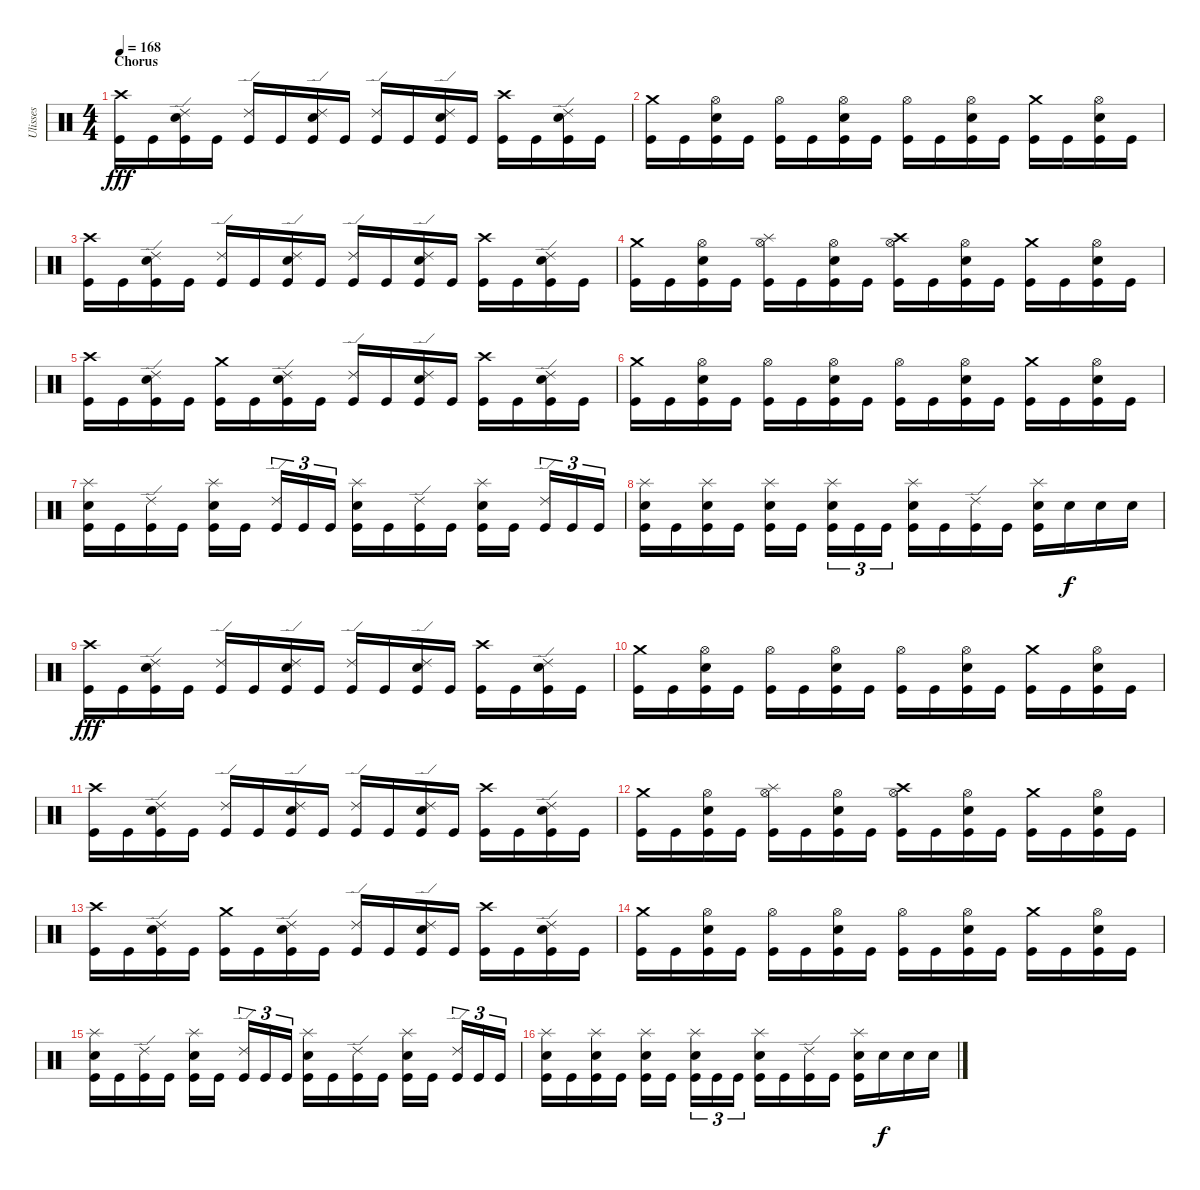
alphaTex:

\track ("Ulisses" "Ulisses") {instrument percussion}
\staff {score}
\articulation defaults
\ts (4 4)
\section ("" "Chorus")
\tempo 168
\clef neutral
\ks c
("Crash high (hit)" "Kick (hit)").16{dy fff} "Kick (hit)".16 ("Ride (edge) 2" "Snare (hit) 2" "Kick (hit)").16 "Kick (hit)".16 ("Ride (edge) 2" "Kick (hit)").16 "Kick (hit)".16 ("Ride (edge) 2" "Snare (hit) 2" "Kick (hit)").16 "Kick (hit)".16 ("Ride (edge) 2" "Kick (hit)").16 "Kick (hit)".16 ("Ride (edge) 2" "Snare (hit) 2" "Kick (hit)").16 "Kick (hit)".16 ("Crash high (hit)" "Kick (hit)").16 "Kick (hit)".16 ("Ride (edge) 2" "Snare (hit) 2" "Kick (hit)").16 "Kick (hit)".16 |
("Crash medium (hit)" "Kick (hit)").16 "Kick (hit)".16 ("Hi-Hat (open)" "Snare (hit) 2" "Kick (hit)").16 "Kick (hit)".16 ("Hi-Hat (open)" "Kick (hit)").16 "Kick (hit)".16 ("Hi-Hat (open)" "Snare (hit) 2" "Kick (hit)").16 "Kick (hit)".16 ("Hi-Hat (open)" "Kick (hit)").16 "Kick (hit)".16 ("Hi-Hat (open)" "Snare (hit) 2" "Kick (hit)").16 "Kick (hit)".16 ("Crash medium (hit)" "Kick (hit)").16 "Kick (hit)".16 ("Hi-Hat (open)" "Snare (hit) 2" "Kick (hit)").16 "Kick (hit)".16 |
("Crash high (hit)" "Kick (hit)").16 "Kick (hit)".16 ("Ride (edge) 2" "Snare (hit) 2" "Kick (hit)").16 "Kick (hit)".16 ("Ride (edge) 2" "Kick (hit)").16 "Kick (hit)".16 ("Ride (edge) 2" "Snare (hit) 2" "Kick (hit)").16 "Kick (hit)".16 ("Ride (edge) 2" "Kick (hit)").16 "Kick (hit)".16 ("Ride (edge) 2" "Snare (hit) 2" "Kick (hit)").16 "Kick (hit)".16 ("Crash high (hit)" "Kick (hit)").16 "Kick (hit)".16 ("Ride (edge) 2" "Snare (hit) 2" "Kick (hit)").16 "Kick (hit)".16 |
("Crash medium (hit)" "Kick (hit)").16 "Kick (hit)".16 ("Hi-Hat (open)" "Snare (hit) 2" "Kick (hit)").16 "Kick (hit)".16 ("Hi-Hat (open)" "Splash (hit)" "Kick (hit)").16 "Kick (hit)".16 ("Hi-Hat (open)" "Snare (hit) 2" "Kick (hit)").16 "Kick (hit)".16 ("Hi-Hat (open)" "Crash high (hit)" "Kick (hit)").16 "Kick (hit)".16 ("Hi-Hat (open)" "Snare (hit) 2" "Kick (hit)").16 "Kick (hit)".16 ("Crash medium (hit)" "Kick (hit)").16 "Kick (hit)".16 ("Hi-Hat (open)" "Snare (hit) 2" "Kick (hit)").16 "Kick (hit)".16 |
("Crash high (hit)" "Kick (hit)").16 "Kick (hit)".16 ("Ride (edge) 2" "Snare (hit) 2" "Kick (hit)").16 "Kick (hit)".16 ("Crash medium (hit)" "Kick (hit)").16 "Kick (hit)".16 ("Ride (edge) 2" "Snare (hit) 2" "Kick (hit)").16 "Kick (hit)".16 ("Ride (edge) 2" "Kick (hit)").16 "Kick (hit)".16 ("Ride (edge) 2" "Snare (hit) 2" "Kick (hit)").16 "Kick (hit)".16 ("Crash high (hit)" "Kick (hit)").16 "Kick (hit)".16 ("Ride (edge) 2" "Snare (hit) 2" "Kick (hit)").16 "Kick (hit)".16 |
("Crash medium (hit)" "Kick (hit)").16 "Kick (hit)".16 ("Hi-Hat (open)" "Snare (hit) 2" "Kick (hit)").16 "Kick (hit)".16 ("Hi-Hat (open)" "Kick (hit)").16 "Kick (hit)".16 ("Hi-Hat (open)" "Snare (hit) 2" "Kick (hit)").16 "Kick (hit)".16 ("Hi-Hat (open)" "Kick (hit)").16 "Kick (hit)".16 ("Hi-Hat (open)" "Snare (hit) 2" "Kick (hit)").16 "Kick (hit)".16 ("Crash medium (hit)" "Kick (hit)").16 "Kick (hit)".16 ("Hi-Hat (open)" "Snare (hit) 2" "Kick (hit)").16 "Kick (hit)".16 |
("Splash (hit)" "Snare (hit) 2" "Kick (hit)").16 "Kick (hit)".16 ("Ride (edge) 2" "Kick (hit)").16 "Kick (hit)".16 ("Splash (hit)" "Snare (hit) 2" "Kick (hit)").16 "Kick (hit)".16 ("Ride (edge) 2" "Kick (hit)").16{tu (3 2)} "Kick (hit)".16{tu (3 2)} "Kick (hit)".16{tu (3 2)} ("Splash (hit)" "Snare (hit) 2" "Kick (hit)").16 "Kick (hit)".16 ("Ride (edge) 2" "Kick (hit)").16 "Kick (hit)".16 ("Splash (hit)" "Snare (hit) 2" "Kick (hit)").16 "Kick (hit)".16 ("Ride (edge) 2" "Kick (hit)").16{tu (3 2)} "Kick (hit)".16{tu (3 2)} "Kick (hit)".16{tu (3 2)} |
("Splash (hit)" "Snare (hit) 2" "Kick (hit)").16 "Kick (hit)".16 ("Splash (hit)" "Snare (hit) 2" "Kick (hit)").16 "Kick (hit)".16 ("Splash (hit)" "Snare (hit) 2" "Kick (hit)").16 "Kick (hit)".16 ("Splash (hit)" "Snare (hit) 2" "Kick (hit)").16{tu (3 2)} "Kick (hit)".16{tu (3 2)} "Kick (hit)".16{tu (3 2)} ("Splash (hit)" "Snare (hit) 2" "Kick (hit)").16 "Kick (hit)".16 ("Ride (edge) 2" "Kick (hit)").16 "Kick (hit)".16 ("Splash (hit)" "Snare (hit) 2" "Kick (hit)").16 "Snare (hit) 2".16{dy f} "Snare (hit) 2".16 "Snare (hit) 2".16 |
("Crash high (hit)" "Kick (hit)").16{dy fff} "Kick (hit)".16 ("Ride (edge) 2" "Snare (hit) 2" "Kick (hit)").16 "Kick (hit)".16 ("Ride (edge) 2" "Kick (hit)").16 "Kick (hit)".16 ("Ride (edge) 2" "Snare (hit) 2" "Kick (hit)").16 "Kick (hit)".16 ("Ride (edge) 2" "Kick (hit)").16 "Kick (hit)".16 ("Ride (edge) 2" "Snare (hit) 2" "Kick (hit)").16 "Kick (hit)".16 ("Crash high (hit)" "Kick (hit)").16 "Kick (hit)".16 ("Ride (edge) 2" "Snare (hit) 2" "Kick (hit)").16 "Kick (hit)".16 |
("Crash medium (hit)" "Kick (hit)").16 "Kick (hit)".16 ("Hi-Hat (open)" "Snare (hit) 2" "Kick (hit)").16 "Kick (hit)".16 ("Hi-Hat (open)" "Kick (hit)").16 "Kick (hit)".16 ("Hi-Hat (open)" "Snare (hit) 2" "Kick (hit)").16 "Kick (hit)".16 ("Hi-Hat (open)" "Kick (hit)").16 "Kick (hit)".16 ("Hi-Hat (open)" "Snare (hit) 2" "Kick (hit)").16 "Kick (hit)".16 ("Crash medium (hit)" "Kick (hit)").16 "Kick (hit)".16 ("Hi-Hat (open)" "Snare (hit) 2" "Kick (hit)").16 "Kick (hit)".16 |
("Crash high (hit)" "Kick (hit)").16 "Kick (hit)".16 ("Ride (edge) 2" "Snare (hit) 2" "Kick (hit)").16 "Kick (hit)".16 ("Ride (edge) 2" "Kick (hit)").16 "Kick (hit)".16 ("Ride (edge) 2" "Snare (hit) 2" "Kick (hit)").16 "Kick (hit)".16 ("Ride (edge) 2" "Kick (hit)").16 "Kick (hit)".16 ("Ride (edge) 2" "Snare (hit) 2" "Kick (hit)").16 "Kick (hit)".16 ("Crash high (hit)" "Kick (hit)").16 "Kick (hit)".16 ("Ride (edge) 2" "Snare (hit) 2" "Kick (hit)").16 "Kick (hit)".16 |
("Crash medium (hit)" "Kick (hit)").16 "Kick (hit)".16 ("Hi-Hat (open)" "Snare (hit) 2" "Kick (hit)").16 "Kick (hit)".16 ("Hi-Hat (open)" "Splash (hit)" "Kick (hit)").16 "Kick (hit)".16 ("Hi-Hat (open)" "Snare (hit) 2" "Kick (hit)").16 "Kick (hit)".16 ("Hi-Hat (open)" "Crash high (hit)" "Kick (hit)").16 "Kick (hit)".16 ("Hi-Hat (open)" "Snare (hit) 2" "Kick (hit)").16 "Kick (hit)".16 ("Crash medium (hit)" "Kick (hit)").16 "Kick (hit)".16 ("Hi-Hat (open)" "Snare (hit) 2" "Kick (hit)").16 "Kick (hit)".16 |
("Crash high (hit)" "Kick (hit)").16 "Kick (hit)".16 ("Ride (edge) 2" "Snare (hit) 2" "Kick (hit)").16 "Kick (hit)".16 ("Crash medium (hit)" "Kick (hit)").16 "Kick (hit)".16 ("Ride (edge) 2" "Snare (hit) 2" "Kick (hit)").16 "Kick (hit)".16 ("Ride (edge) 2" "Kick (hit)").16 "Kick (hit)".16 ("Ride (edge) 2" "Snare (hit) 2" "Kick (hit)").16 "Kick (hit)".16 ("Crash high (hit)" "Kick (hit)").16 "Kick (hit)".16 ("Ride (edge) 2" "Snare (hit) 2" "Kick (hit)").16 "Kick (hit)".16 |
("Crash medium (hit)" "Kick (hit)").16 "Kick (hit)".16 ("Hi-Hat (open)" "Snare (hit) 2" "Kick (hit)").16 "Kick (hit)".16 ("Hi-Hat (open)" "Kick (hit)").16 "Kick (hit)".16 ("Hi-Hat (open)" "Snare (hit) 2" "Kick (hit)").16 "Kick (hit)".16 ("Hi-Hat (open)" "Kick (hit)").16 "Kick (hit)".16 ("Hi-Hat (open)" "Snare (hit) 2" "Kick (hit)").16 "Kick (hit)".16 ("Crash medium (hit)" "Kick (hit)").16 "Kick (hit)".16 ("Hi-Hat (open)" "Snare (hit) 2" "Kick (hit)").16 "Kick (hit)".16 |
("Splash (hit)" "Snare (hit) 2" "Kick (hit)").16 "Kick (hit)".16 ("Ride (edge) 2" "Kick (hit)").16 "Kick (hit)".16 ("Splash (hit)" "Snare (hit) 2" "Kick (hit)").16 "Kick (hit)".16 ("Ride (edge) 2" "Kick (hit)").16{tu (3 2)} "Kick (hit)".16{tu (3 2)} "Kick (hit)".16{tu (3 2)} ("Splash (hit)" "Snare (hit) 2" "Kick (hit)").16 "Kick (hit)".16 ("Ride (edge) 2" "Kick (hit)").16 "Kick (hit)".16 ("Splash (hit)" "Snare (hit) 2" "Kick (hit)").16 "Kick (hit)".16 ("Ride (edge) 2" "Kick (hit)").16{tu (3 2)} "Kick (hit)".16{tu (3 2)} "Kick (hit)".16{tu (3 2)} |
("Splash (hit)" "Snare (hit) 2" "Kick (hit)").16 "Kick (hit)".16 ("Splash (hit)" "Snare (hit) 2" "Kick (hit)").16 "Kick (hit)".16 ("Splash (hit)" "Snare (hit) 2" "Kick (hit)").16 "Kick (hit)".16 ("Splash (hit)" "Snare (hit) 2" "Kick (hit)").16{tu (3 2)} "Kick (hit)".16{tu (3 2)} "Kick (hit)".16{tu (3 2)} ("Splash (hit)" "Snare (hit) 2" "Kick (hit)").16 "Kick (hit)".16 ("Ride (edge) 2" "Kick (hit)").16 "Kick (hit)".16 ("Splash (hit)" "Snare (hit) 2" "Kick (hit)").16 "Snare (hit) 2".16{dy f} "Snare (hit) 2".16 "Snare (hit) 2".16
